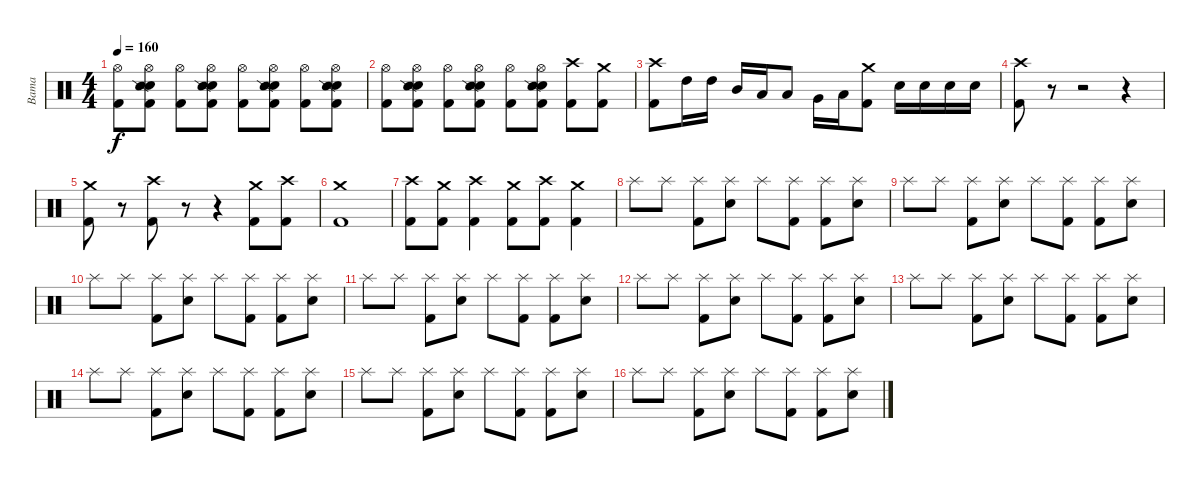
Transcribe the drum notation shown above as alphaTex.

\track ("Bama" "Bama") {instrument percussion}
\staff {score}
\articulation defaults
\ts (4 4)
\tempo 160
\clef neutral
\ks c
("Hi-Hat (open)" "Kick (hit) 2").8{dy f} ("Hi-Hat (open)" "Electric Snare (hit)" "Snare (side stick) 2" "Kick (hit) 2").8 ("Hi-Hat (open)" "Kick (hit) 2").8 ("Hi-Hat (open)" "Electric Snare (hit)" "Snare (side stick) 2" "Kick (hit) 2").8 ("Hi-Hat (open)" "Kick (hit) 2").8 ("Hi-Hat (open)" "Electric Snare (hit)" "Snare (side stick) 2" "Kick (hit) 2").8 ("Hi-Hat (open)" "Kick (hit) 2").8 ("Hi-Hat (open)" "Electric Snare (hit)" "Snare (side stick) 2" "Kick (hit) 2").8 |
("Hi-Hat (open)" "Kick (hit) 2").8 ("Hi-Hat (open)" "Electric Snare (hit)" "Snare (side stick) 2" "Kick (hit) 2").8 ("Hi-Hat (open)" "Kick (hit) 2").8 ("Hi-Hat (open)" "Electric Snare (hit)" "Snare (side stick) 2" "Kick (hit) 2").8 ("Hi-Hat (open)" "Kick (hit) 2").8 ("Hi-Hat (open)" "Electric Snare (hit)" "Snare (side stick) 2" "Kick (hit) 2").8 ("Crash high (hit)" "Kick (hit) 2").8 ("Crash medium (hit)" "Kick (hit) 2").8 |
("Crash high (hit)" "Kick (hit) 2").8 "High Tom (hit)".16 "High Tom (hit)".16 "Mid Tom (hit)".16 "Low Tom (hit)".16 "Low Tom (hit)".8 "Very Low Tom (hit)".16 "Low Floor Tom (hit)".16 ("Crash medium (hit)" "Kick (hit) 2").8 "Electric Snare (hit)".16 "Electric Snare (hit)".16 "Electric Snare (hit)".16 "Electric Snare (hit)".16 |
("Crash high (hit)" "Kick (hit) 2").8 r.8 r.2 r.4 |
("Crash medium (hit)" "Kick (hit) 2").8 r.8 ("Crash high (hit)" "Kick (hit) 2").8 r.8 r.4 ("Crash medium (hit)" "Kick (hit) 2").8 ("Crash high (hit)" "Kick (hit) 2").8 |
("Crash medium (hit)" "Kick (hit) 2").1 |
("Crash high (hit)" "Kick (hit) 2").8 ("Crash medium (hit)" "Kick (hit) 2").8 ("Crash high (hit)" "Kick (hit) 2").4 ("Crash medium (hit)" "Kick (hit) 2").8 ("Crash high (hit)" "Kick (hit) 2").8 ("Crash medium (hit)" "Kick (hit) 2").4 |
"Splash (hit)".8 "Splash (hit)".8 ("Splash (hit)" "Kick (hit) 2").8 ("Splash (hit)" "Electric Snare (hit)").8 "Splash (hit)".8 ("Splash (hit)" "Kick (hit) 2").8 ("Splash (hit)" "Kick (hit) 2").8 ("Splash (hit)" "Electric Snare (hit)").8 |
"Splash (hit)".8 "Splash (hit)".8 ("Splash (hit)" "Kick (hit) 2").8 ("Splash (hit)" "Electric Snare (hit)").8 "Splash (hit)".8 ("Splash (hit)" "Kick (hit) 2").8 ("Splash (hit)" "Kick (hit) 2").8 ("Splash (hit)" "Electric Snare (hit)").8 |
"Splash (hit)".8 "Splash (hit)".8 ("Splash (hit)" "Kick (hit) 2").8 ("Splash (hit)" "Electric Snare (hit)").8 "Splash (hit)".8 ("Splash (hit)" "Kick (hit) 2").8 ("Splash (hit)" "Kick (hit) 2").8 ("Splash (hit)" "Electric Snare (hit)").8 |
"Splash (hit)".8 "Splash (hit)".8 ("Splash (hit)" "Kick (hit) 2").8 ("Splash (hit)" "Electric Snare (hit)").8 "Splash (hit)".8 ("Splash (hit)" "Kick (hit) 2").8 ("Splash (hit)" "Kick (hit) 2").8 ("Splash (hit)" "Electric Snare (hit)").8 |
"Splash (hit)".8 "Splash (hit)".8 ("Splash (hit)" "Kick (hit) 2").8 ("Splash (hit)" "Electric Snare (hit)").8 "Splash (hit)".8 ("Splash (hit)" "Kick (hit) 2").8 ("Splash (hit)" "Kick (hit) 2").8 ("Splash (hit)" "Electric Snare (hit)").8 |
"Splash (hit)".8 "Splash (hit)".8 ("Splash (hit)" "Kick (hit) 2").8 ("Splash (hit)" "Electric Snare (hit)").8 "Splash (hit)".8 ("Splash (hit)" "Kick (hit) 2").8 ("Splash (hit)" "Kick (hit) 2").8 ("Splash (hit)" "Electric Snare (hit)").8 |
"Splash (hit)".8 "Splash (hit)".8 ("Splash (hit)" "Kick (hit) 2").8 ("Splash (hit)" "Electric Snare (hit)").8 "Splash (hit)".8 ("Splash (hit)" "Kick (hit) 2").8 ("Splash (hit)" "Kick (hit) 2").8 ("Splash (hit)" "Electric Snare (hit)").8 |
"Splash (hit)".8 "Splash (hit)".8 ("Splash (hit)" "Kick (hit) 2").8 ("Splash (hit)" "Electric Snare (hit)").8 "Splash (hit)".8 ("Splash (hit)" "Kick (hit) 2").8 ("Splash (hit)" "Kick (hit) 2").8 ("Splash (hit)" "Electric Snare (hit)").8 |
"Splash (hit)".8 "Splash (hit)".8 ("Splash (hit)" "Kick (hit) 2").8 ("Splash (hit)" "Electric Snare (hit)").8 "Splash (hit)".8 ("Splash (hit)" "Kick (hit) 2").8 ("Splash (hit)" "Kick (hit) 2").8 ("Splash (hit)" "Electric Snare (hit)").8
